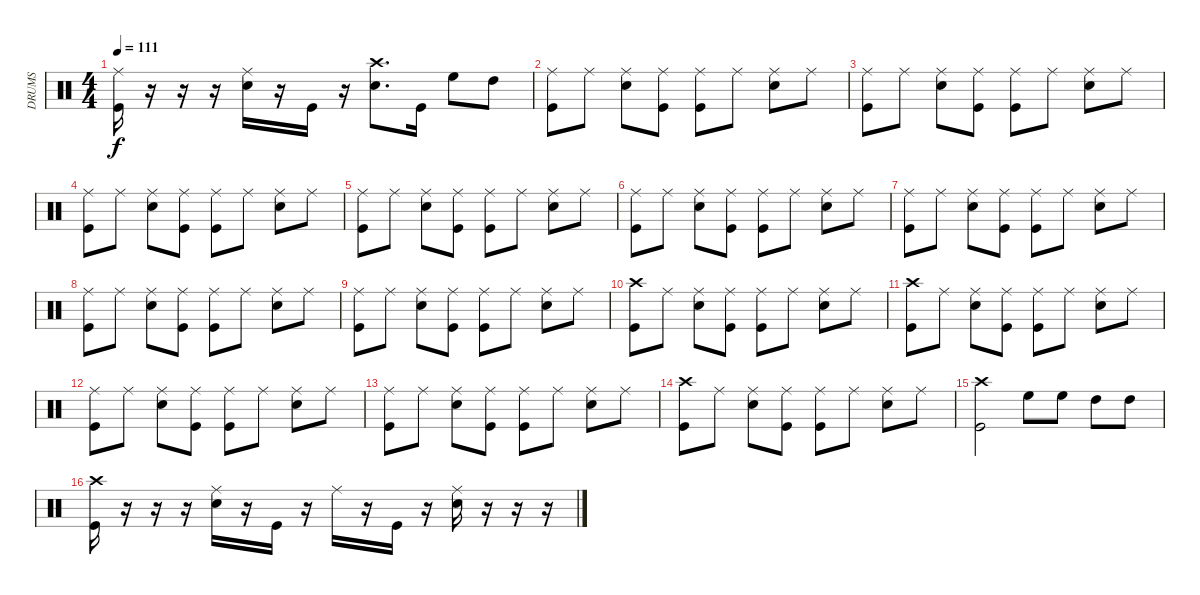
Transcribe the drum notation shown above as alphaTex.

\track ("DRUMS" "DRUMS") {instrument percussion}
\staff {score}
\articulation defaults
\ts (4 4)
\tempo 111
\clef neutral
\ks c
("Ride (middle)" "Kick (hit)").16{dy f} r.16 r.16 r.16 ("Ride (middle)" "Snare (hit) 2").16 r.16 "Kick (hit)".16 r.16 ("Snare (hit) 2" "Crash high (hit)").8{d} "Kick (hit)".16 "High Floor Tom (hit)".8 "High Tom (hit)".8 |
("Ride (middle)" "Kick (hit)").8 "Ride (middle)".8 ("Ride (middle)" "Snare (hit) 2").8 ("Ride (middle)" "Kick (hit)").8 ("Ride (middle)" "Kick (hit)").8 "Ride (middle)".8 ("Ride (middle)" "Snare (hit) 2").8 "Ride (middle)".8 |
("Ride (middle)" "Kick (hit)").8 "Ride (middle)".8 ("Ride (middle)" "Snare (hit) 2").8 ("Ride (middle)" "Kick (hit)").8 ("Ride (middle)" "Kick (hit)").8 "Ride (middle)".8 ("Ride (middle)" "Snare (hit) 2").8 "Ride (middle)".8 |
("Ride (middle)" "Kick (hit)").8 "Ride (middle)".8 ("Ride (middle)" "Snare (hit) 2").8 ("Ride (middle)" "Kick (hit)").8 ("Ride (middle)" "Kick (hit)").8 "Ride (middle)".8 ("Ride (middle)" "Snare (hit) 2").8 "Ride (middle)".8 |
("Ride (middle)" "Kick (hit)").8 "Ride (middle)".8 ("Ride (middle)" "Snare (hit) 2").8 ("Ride (middle)" "Kick (hit)").8 ("Ride (middle)" "Kick (hit)").8 "Ride (middle)".8 ("Ride (middle)" "Snare (hit) 2").8 "Ride (middle)".8 |
("Ride (middle)" "Kick (hit)").8 "Ride (middle)".8 ("Ride (middle)" "Snare (hit) 2").8 ("Ride (middle)" "Kick (hit)").8 ("Ride (middle)" "Kick (hit)").8 "Ride (middle)".8 ("Ride (middle)" "Snare (hit) 2").8 "Ride (middle)".8 |
("Ride (middle)" "Kick (hit)").8 "Ride (middle)".8 ("Ride (middle)" "Snare (hit) 2").8 ("Ride (middle)" "Kick (hit)").8 ("Ride (middle)" "Kick (hit)").8 "Ride (middle)".8 ("Ride (middle)" "Snare (hit) 2").8 "Ride (middle)".8 |
("Ride (middle)" "Kick (hit)").8 "Ride (middle)".8 ("Ride (middle)" "Snare (hit) 2").8 ("Ride (middle)" "Kick (hit)").8 ("Ride (middle)" "Kick (hit)").8 "Ride (middle)".8 ("Ride (middle)" "Snare (hit) 2").8 "Ride (middle)".8 |
("Ride (middle)" "Kick (hit)").8 "Ride (middle)".8 ("Ride (middle)" "Snare (hit) 2").8 ("Ride (middle)" "Kick (hit)").8 ("Ride (middle)" "Kick (hit)").8 "Ride (middle)".8 ("Ride (middle)" "Snare (hit) 2").8 "Ride (middle)".8 |
("Crash high (hit)" "Kick (hit)").8 "Ride (middle)".8 ("Ride (middle)" "Snare (hit) 2").8 ("Ride (middle)" "Kick (hit)").8 ("Ride (middle)" "Kick (hit)").8 "Ride (middle)".8 ("Ride (middle)" "Snare (hit) 2").8 "Ride (middle)".8 |
("Crash high (hit)" "Kick (hit)").8 "Ride (middle)".8 ("Ride (middle)" "Snare (hit) 2").8 ("Ride (middle)" "Kick (hit)").8 ("Ride (middle)" "Kick (hit)").8 "Ride (middle)".8 ("Ride (middle)" "Snare (hit) 2").8 "Ride (middle)".8 |
("Ride (middle)" "Kick (hit)").8 "Ride (middle)".8 ("Ride (middle)" "Snare (hit) 2").8 ("Ride (middle)" "Kick (hit)").8 ("Ride (middle)" "Kick (hit)").8 "Ride (middle)".8 ("Ride (middle)" "Snare (hit) 2").8 "Ride (middle)".8 |
("Ride (middle)" "Kick (hit)").8 "Ride (middle)".8 ("Ride (middle)" "Snare (hit) 2").8 ("Ride (middle)" "Kick (hit)").8 ("Ride (middle)" "Kick (hit)").8 "Ride (middle)".8 ("Ride (middle)" "Snare (hit) 2").8 "Ride (middle)".8 |
("Crash high (hit)" "Kick (hit)").8 "Ride (middle)".8 ("Ride (middle)" "Snare (hit) 2").8 ("Ride (middle)" "Kick (hit)").8 ("Ride (middle)" "Kick (hit)").8 "Ride (middle)".8 ("Ride (middle)" "Snare (hit) 2").8 "Ride (middle)".8 |
("Kick (hit)" "Crash high (hit)").2 "High Floor Tom (hit)".8 "High Floor Tom (hit)".8 "High Tom (hit)".8 "High Tom (hit)".8 |
("Crash high (hit)" "Kick (hit)").16 r.16 r.16 r.16 ("Ride (middle)" "Snare (hit) 2").16 r.16 "Kick (hit)".16 r.16 "Ride (middle)".16 r.16 "Kick (hit)".16 r.16 ("Ride (middle)" "Snare (hit) 2").16 r.16 r.16 r.16
